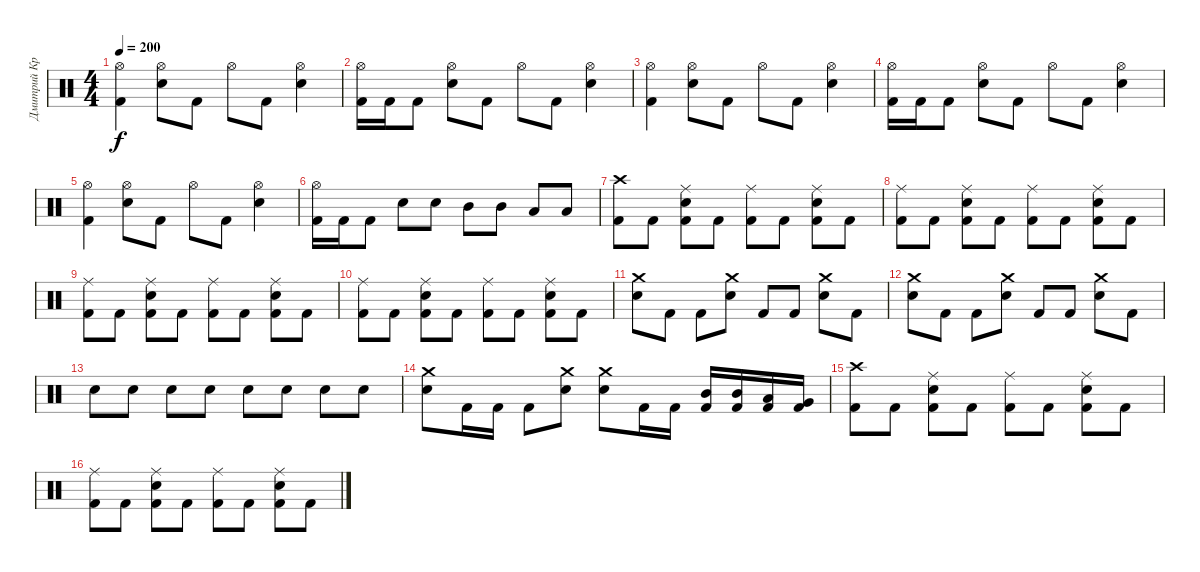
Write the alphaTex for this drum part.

\track ("Дмитрий Кривенков" "Дмитрий Кр") {instrument percussion}
\staff {score}
\articulation defaults
\ts (4 4)
\tempo 200
\clef neutral
\ks c
("Hi-Hat (open)" "Kick (hit) 2").4{dy f} ("Hi-Hat (open)" "Electric Snare (hit)").8 "Kick (hit) 2".8 "Hi-Hat (open)".8 "Kick (hit) 2".8 ("Hi-Hat (open)" "Electric Snare (hit)").4 |
("Hi-Hat (open)" "Kick (hit) 2").16 "Kick (hit) 2".16 "Kick (hit) 2".8 ("Hi-Hat (open)" "Electric Snare (hit)").8 "Kick (hit) 2".8 "Hi-Hat (open)".8 "Kick (hit) 2".8 ("Hi-Hat (open)" "Electric Snare (hit)").4 |
("Hi-Hat (open)" "Kick (hit) 2").4 ("Hi-Hat (open)" "Electric Snare (hit)").8 "Kick (hit) 2".8 "Hi-Hat (open)".8 "Kick (hit) 2".8 ("Hi-Hat (open)" "Electric Snare (hit)").4 |
("Hi-Hat (open)" "Kick (hit) 2").16 "Kick (hit) 2".16 "Kick (hit) 2".8 ("Hi-Hat (open)" "Electric Snare (hit)").8 "Kick (hit) 2".8 "Hi-Hat (open)".8 "Kick (hit) 2".8 ("Hi-Hat (open)" "Electric Snare (hit)").4 |
("Hi-Hat (open)" "Kick (hit) 2").4 ("Hi-Hat (open)" "Electric Snare (hit)").8 "Kick (hit) 2".8 "Hi-Hat (open)".8 "Kick (hit) 2".8 ("Hi-Hat (open)" "Electric Snare (hit)").4 |
("Hi-Hat (open)" "Kick (hit) 2").16 "Kick (hit) 2".16 "Kick (hit) 2".8 "Electric Snare (hit)".8 "Electric Snare (hit)".8 "Mid Tom (hit)".8 "Mid Tom (hit)".8 "Low Tom (hit)".8 "Low Tom (hit)".8 |
("Crash high (hit)" "Kick (hit) 2").8 "Kick (hit) 2".8 ("Ride (middle)" "Electric Snare (hit)" "Kick (hit) 2").8 "Kick (hit) 2".8 ("Ride (middle)" "Kick (hit) 2").8 "Kick (hit) 2".8 ("Ride (middle)" "Electric Snare (hit)" "Kick (hit) 2").8 "Kick (hit) 2".8 |
("Ride (middle)" "Kick (hit) 2").8 "Kick (hit) 2".8 ("Ride (middle)" "Electric Snare (hit)" "Kick (hit) 2").8 "Kick (hit) 2".8 ("Ride (middle)" "Kick (hit) 2").8 "Kick (hit) 2".8 ("Ride (middle)" "Electric Snare (hit)" "Kick (hit) 2").8 "Kick (hit) 2".8 |
("Ride (middle)" "Kick (hit) 2").8 "Kick (hit) 2".8 ("Ride (middle)" "Electric Snare (hit)" "Kick (hit) 2").8 "Kick (hit) 2".8 ("Ride (middle)" "Kick (hit) 2").8 "Kick (hit) 2".8 ("Ride (middle)" "Electric Snare (hit)" "Kick (hit) 2").8 "Kick (hit) 2".8 |
("Ride (middle)" "Kick (hit) 2").8 "Kick (hit) 2".8 ("Ride (middle)" "Electric Snare (hit)" "Kick (hit) 2").8 "Kick (hit) 2".8 ("Ride (middle)" "Kick (hit) 2").8 "Kick (hit) 2".8 ("Ride (middle)" "Electric Snare (hit)" "Kick (hit) 2").8 "Kick (hit) 2".8 |
("Crash medium (hit)" "Electric Snare (hit)").8 "Kick (hit) 2".8 "Kick (hit) 2".8 ("Crash medium (hit)" "Electric Snare (hit)").8 "Kick (hit) 2".8 "Kick (hit) 2".8 ("Crash medium (hit)" "Electric Snare (hit)").8 "Kick (hit) 2".8 |
("Crash medium (hit)" "Electric Snare (hit)").8 "Kick (hit) 2".8 "Kick (hit) 2".8 ("Crash medium (hit)" "Electric Snare (hit)").8 "Kick (hit) 2".8 "Kick (hit) 2".8 ("Crash medium (hit)" "Electric Snare (hit)").8 "Kick (hit) 2".8 |
"Electric Snare (hit)".8 "Electric Snare (hit)".8 "Electric Snare (hit)".8 "Electric Snare (hit)".8 "Electric Snare (hit)".8 "Electric Snare (hit)".8 "Electric Snare (hit)".8 "Electric Snare (hit)".8 |
("Crash medium (hit)" "Electric Snare (hit)").8 "Kick (hit) 2".16 "Kick (hit) 2".16 "Kick (hit) 2".8 ("Crash medium (hit)" "Electric Snare (hit)").8 ("Crash medium (hit)" "Electric Snare (hit)").8 "Kick (hit) 2".16 "Kick (hit) 2".16 ("Mid Tom (hit)" "Kick (hit) 2").16 ("Mid Tom (hit)" "Kick (hit) 2").16 ("Low Tom (hit)" "Kick (hit) 2").16 ("Very Low Tom (hit)" "Kick (hit) 2").16 |
("Crash high (hit)" "Kick (hit) 2").8 "Kick (hit) 2".8 ("Ride (middle)" "Electric Snare (hit)" "Kick (hit) 2").8 "Kick (hit) 2".8 ("Ride (middle)" "Kick (hit) 2").8 "Kick (hit) 2".8 ("Ride (middle)" "Electric Snare (hit)" "Kick (hit) 2").8 "Kick (hit) 2".8 |
("Ride (middle)" "Kick (hit) 2").8 "Kick (hit) 2".8 ("Ride (middle)" "Electric Snare (hit)" "Kick (hit) 2").8 "Kick (hit) 2".8 ("Ride (middle)" "Kick (hit) 2").8 "Kick (hit) 2".8 ("Ride (middle)" "Electric Snare (hit)" "Kick (hit) 2").8 "Kick (hit) 2".8
